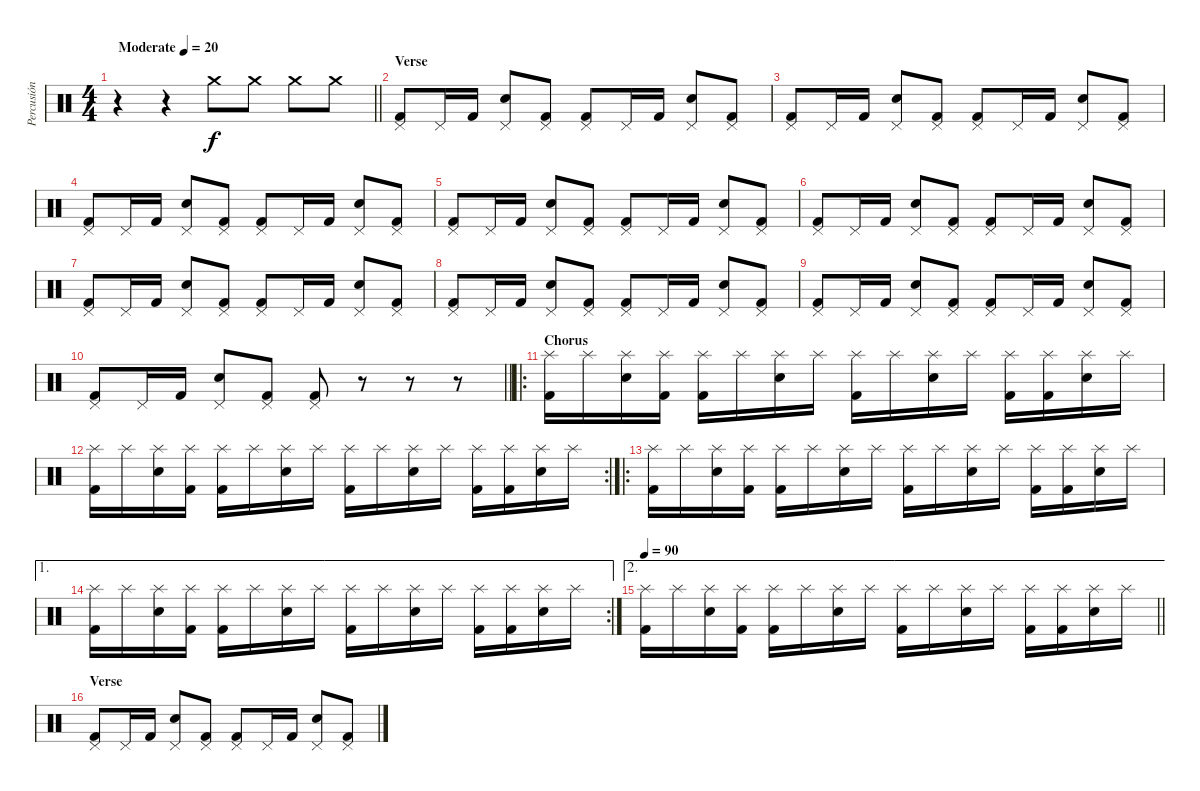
\track ("Percusión" "Percusión") {instrument percussion}
\staff {score}
\articulation defaults
\ts (4 4)
\tempo (20 "Moderate")
\tempo 90
\tempo (20 "Moderate")
\clef neutral
\barLineRight lightlight
\ks c
r.4{dy f} r.4 "Crash medium (hit)".8 "Crash medium (hit)".8 "Crash medium (hit)".8 "Crash medium (hit)".8 |
\section ("" "Verse")
("Pedal Hi-Hat (hit)" "Kick (hit) 2").8 "Pedal Hi-Hat (hit)".16 "Kick (hit) 2".16 ("Pedal Hi-Hat (hit)" "Electric Snare (hit)").8 ("Pedal Hi-Hat (hit)" "Kick (hit) 2").8 ("Pedal Hi-Hat (hit)" "Kick (hit) 2").8 "Pedal Hi-Hat (hit)".16 "Kick (hit) 2".16 ("Pedal Hi-Hat (hit)" "Electric Snare (hit)").8 ("Pedal Hi-Hat (hit)" "Kick (hit) 2").8 |
("Pedal Hi-Hat (hit)" "Kick (hit) 2").8 "Pedal Hi-Hat (hit)".16 "Kick (hit) 2".16 ("Pedal Hi-Hat (hit)" "Electric Snare (hit)").8 ("Pedal Hi-Hat (hit)" "Kick (hit) 2").8 ("Pedal Hi-Hat (hit)" "Kick (hit) 2").8 "Pedal Hi-Hat (hit)".16 "Kick (hit) 2".16 ("Pedal Hi-Hat (hit)" "Electric Snare (hit)").8 ("Pedal Hi-Hat (hit)" "Kick (hit) 2").8 |
("Pedal Hi-Hat (hit)" "Kick (hit) 2").8 "Pedal Hi-Hat (hit)".16 "Kick (hit) 2".16 ("Pedal Hi-Hat (hit)" "Electric Snare (hit)").8 ("Pedal Hi-Hat (hit)" "Kick (hit) 2").8 ("Pedal Hi-Hat (hit)" "Kick (hit) 2").8 "Pedal Hi-Hat (hit)".16 "Kick (hit) 2".16 ("Pedal Hi-Hat (hit)" "Electric Snare (hit)").8 ("Pedal Hi-Hat (hit)" "Kick (hit) 2").8 |
("Pedal Hi-Hat (hit)" "Kick (hit) 2").8 "Pedal Hi-Hat (hit)".16 "Kick (hit) 2".16 ("Pedal Hi-Hat (hit)" "Electric Snare (hit)").8 ("Pedal Hi-Hat (hit)" "Kick (hit) 2").8 ("Pedal Hi-Hat (hit)" "Kick (hit) 2").8 "Pedal Hi-Hat (hit)".16 "Kick (hit) 2".16 ("Pedal Hi-Hat (hit)" "Electric Snare (hit)").8 ("Pedal Hi-Hat (hit)" "Kick (hit) 2").8 |
("Pedal Hi-Hat (hit)" "Kick (hit) 2").8 "Pedal Hi-Hat (hit)".16 "Kick (hit) 2".16 ("Pedal Hi-Hat (hit)" "Electric Snare (hit)").8 ("Pedal Hi-Hat (hit)" "Kick (hit) 2").8 ("Pedal Hi-Hat (hit)" "Kick (hit) 2").8 "Pedal Hi-Hat (hit)".16 "Kick (hit) 2".16 ("Pedal Hi-Hat (hit)" "Electric Snare (hit)").8 ("Pedal Hi-Hat (hit)" "Kick (hit) 2").8 |
("Pedal Hi-Hat (hit)" "Kick (hit) 2").8 "Pedal Hi-Hat (hit)".16 "Kick (hit) 2".16 ("Pedal Hi-Hat (hit)" "Electric Snare (hit)").8 ("Pedal Hi-Hat (hit)" "Kick (hit) 2").8 ("Pedal Hi-Hat (hit)" "Kick (hit) 2").8 "Pedal Hi-Hat (hit)".16 "Kick (hit) 2".16 ("Pedal Hi-Hat (hit)" "Electric Snare (hit)").8 ("Pedal Hi-Hat (hit)" "Kick (hit) 2").8 |
("Pedal Hi-Hat (hit)" "Kick (hit) 2").8 "Pedal Hi-Hat (hit)".16 "Kick (hit) 2".16 ("Pedal Hi-Hat (hit)" "Electric Snare (hit)").8 ("Pedal Hi-Hat (hit)" "Kick (hit) 2").8 ("Pedal Hi-Hat (hit)" "Kick (hit) 2").8 "Pedal Hi-Hat (hit)".16 "Kick (hit) 2".16 ("Pedal Hi-Hat (hit)" "Electric Snare (hit)").8 ("Pedal Hi-Hat (hit)" "Kick (hit) 2").8 |
("Pedal Hi-Hat (hit)" "Kick (hit) 2").8 "Pedal Hi-Hat (hit)".16 "Kick (hit) 2".16 ("Pedal Hi-Hat (hit)" "Electric Snare (hit)").8 ("Pedal Hi-Hat (hit)" "Kick (hit) 2").8 ("Pedal Hi-Hat (hit)" "Kick (hit) 2").8 "Pedal Hi-Hat (hit)".16 "Kick (hit) 2".16 ("Pedal Hi-Hat (hit)" "Electric Snare (hit)").8 ("Pedal Hi-Hat (hit)" "Kick (hit) 2").8 |
\barLineRight lightlight
("Pedal Hi-Hat (hit)" "Kick (hit) 2").8 "Pedal Hi-Hat (hit)".16 "Kick (hit) 2".16 ("Pedal Hi-Hat (hit)" "Electric Snare (hit)").8 ("Pedal Hi-Hat (hit)" "Kick (hit) 2").8 ("Pedal Hi-Hat (hit)" "Kick (hit) 2").8 r.8 r.8 r.8 |
\ro
\section ("" "Chorus")
("Splash (hit)" "Kick (hit) 2").16 "Splash (hit)".16 ("Splash (hit)" "Electric Snare (hit)").16 ("Splash (hit)" "Kick (hit) 2").16 ("Splash (hit)" "Kick (hit) 2").16 "Splash (hit)".16 ("Splash (hit)" "Electric Snare (hit)").16 "Splash (hit)".16 ("Splash (hit)" "Kick (hit) 2").16 "Splash (hit)".16 ("Splash (hit)" "Electric Snare (hit)").16 "Splash (hit)".16 ("Splash (hit)" "Kick (hit) 2").16 ("Splash (hit)" "Kick (hit) 2").16 ("Splash (hit)" "Electric Snare (hit)").16 "Splash (hit)".16 |
\rc 2
("Splash (hit)" "Kick (hit) 2").16 "Splash (hit)".16 ("Splash (hit)" "Electric Snare (hit)").16 ("Splash (hit)" "Kick (hit) 2").16 ("Splash (hit)" "Kick (hit) 2").16 "Splash (hit)".16 ("Splash (hit)" "Electric Snare (hit)").16 "Splash (hit)".16 ("Splash (hit)" "Kick (hit) 2").16 "Splash (hit)".16 ("Splash (hit)" "Electric Snare (hit)").16 "Splash (hit)".16 ("Splash (hit)" "Kick (hit) 2").16 ("Splash (hit)" "Kick (hit) 2").16 ("Splash (hit)" "Electric Snare (hit)").16 "Splash (hit)".16 |
\ro
("Splash (hit)" "Kick (hit) 2").16 "Splash (hit)".16 ("Splash (hit)" "Electric Snare (hit)").16 ("Splash (hit)" "Kick (hit) 2").16 ("Splash (hit)" "Kick (hit) 2").16 "Splash (hit)".16 ("Splash (hit)" "Electric Snare (hit)").16 "Splash (hit)".16 ("Splash (hit)" "Kick (hit) 2").16 "Splash (hit)".16 ("Splash (hit)" "Electric Snare (hit)").16 "Splash (hit)".16 ("Splash (hit)" "Kick (hit) 2").16 ("Splash (hit)" "Kick (hit) 2").16 ("Splash (hit)" "Electric Snare (hit)").16 "Splash (hit)".16 |
\ae 1
\rc 2
("Splash (hit)" "Kick (hit) 2").16 "Splash (hit)".16 ("Splash (hit)" "Electric Snare (hit)").16 ("Splash (hit)" "Kick (hit) 2").16 ("Splash (hit)" "Kick (hit) 2").16 "Splash (hit)".16 ("Splash (hit)" "Electric Snare (hit)").16 "Splash (hit)".16 ("Splash (hit)" "Kick (hit) 2").16 "Splash (hit)".16 ("Splash (hit)" "Electric Snare (hit)").16 "Splash (hit)".16 ("Splash (hit)" "Kick (hit) 2").16 ("Splash (hit)" "Kick (hit) 2").16 ("Splash (hit)" "Electric Snare (hit)").16 "Splash (hit)".16 |
\ae 2
\tempo 90
\barLineRight lightlight
("Splash (hit)" "Kick (hit) 2").16 "Splash (hit)".16 ("Splash (hit)" "Electric Snare (hit)").16 ("Splash (hit)" "Kick (hit) 2").16 ("Splash (hit)" "Kick (hit) 2").16 "Splash (hit)".16 ("Splash (hit)" "Electric Snare (hit)").16 "Splash (hit)".16 ("Splash (hit)" "Kick (hit) 2").16 "Splash (hit)".16 ("Splash (hit)" "Electric Snare (hit)").16 "Splash (hit)".16 ("Splash (hit)" "Kick (hit) 2").16 ("Splash (hit)" "Kick (hit) 2").16 ("Splash (hit)" "Electric Snare (hit)").16 "Splash (hit)".16 |
\section ("" "Verse")
("Pedal Hi-Hat (hit)" "Kick (hit) 2").8 "Pedal Hi-Hat (hit)".16 "Kick (hit) 2".16 ("Pedal Hi-Hat (hit)" "Electric Snare (hit)").8 ("Pedal Hi-Hat (hit)" "Kick (hit) 2").8 ("Pedal Hi-Hat (hit)" "Kick (hit) 2").8 "Pedal Hi-Hat (hit)".16 "Kick (hit) 2".16 ("Pedal Hi-Hat (hit)" "Electric Snare (hit)").8 ("Pedal Hi-Hat (hit)" "Kick (hit) 2").8
